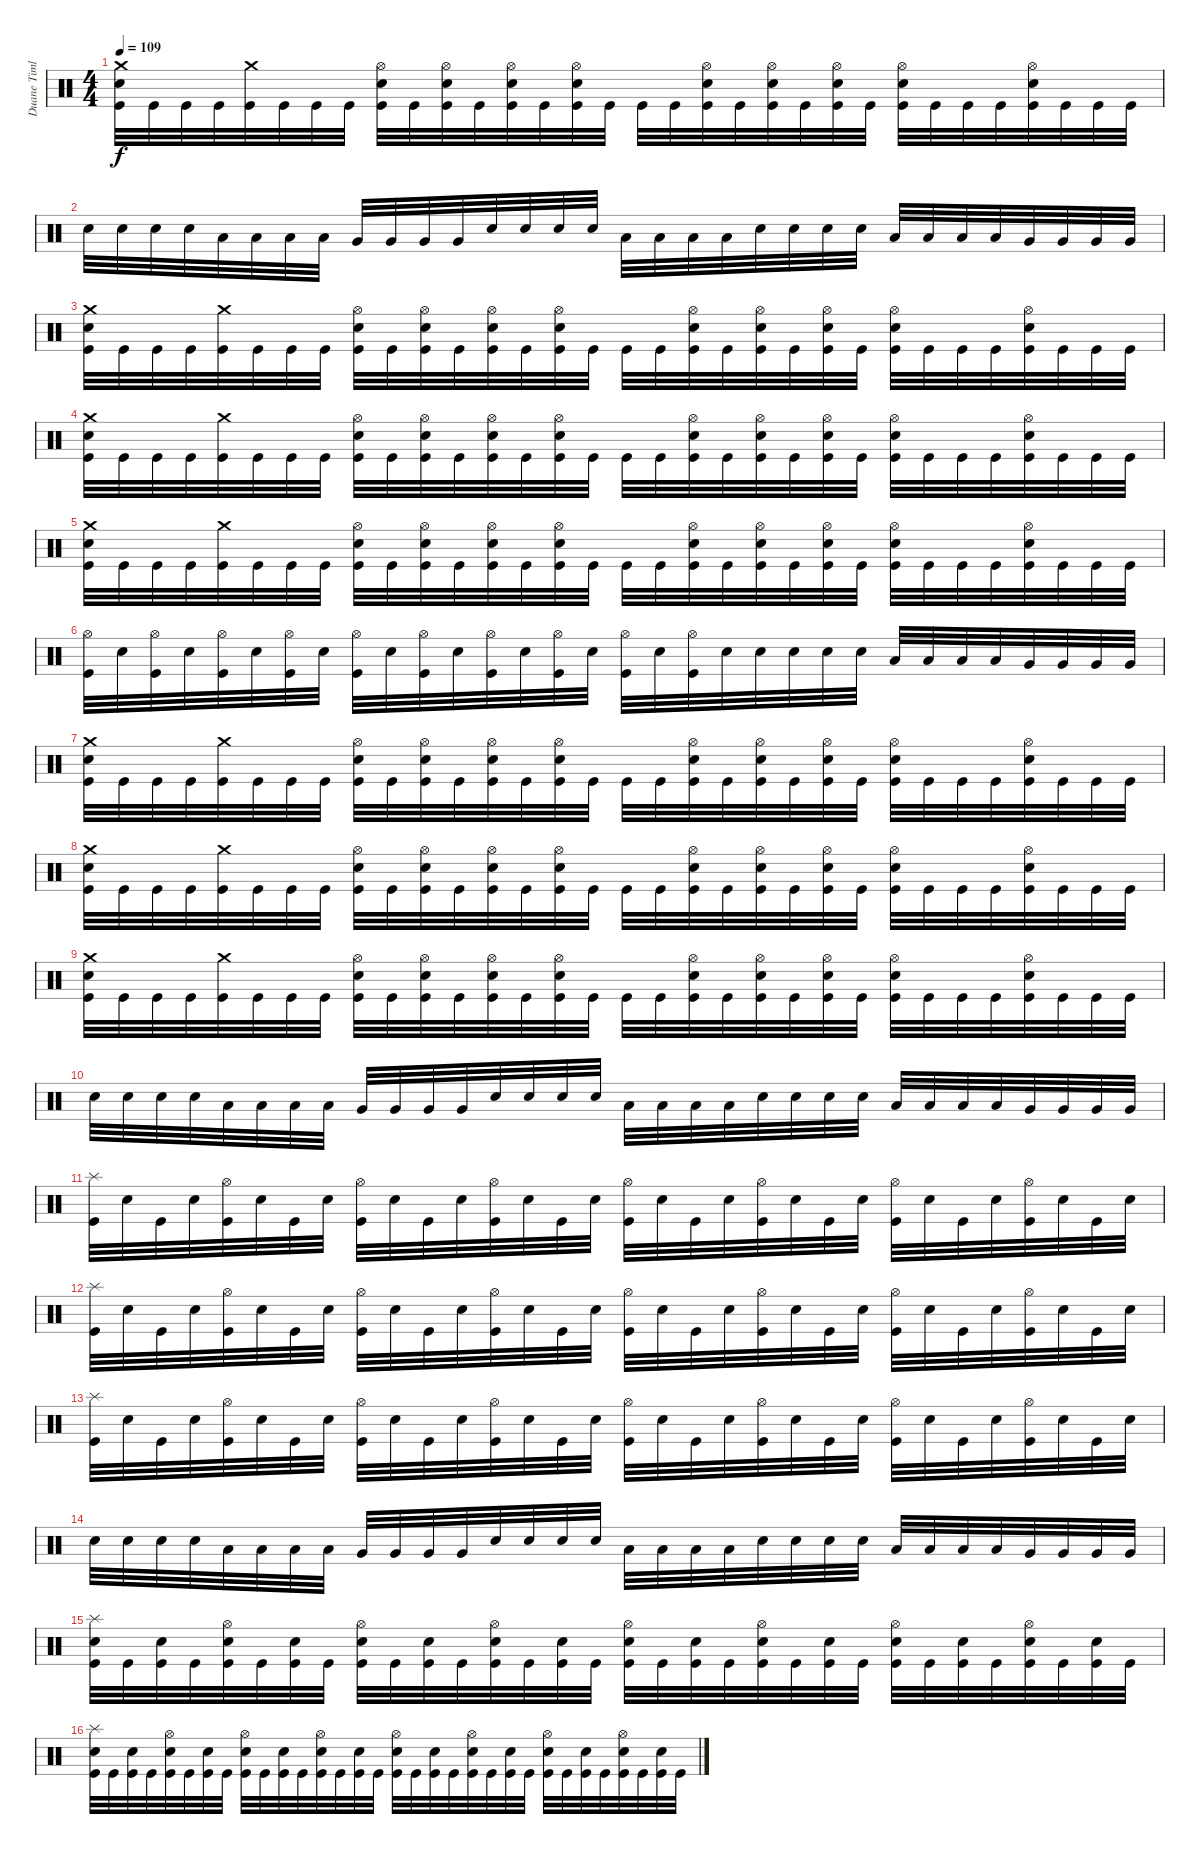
\track ("Duane Timlin" "Duane Timl") {instrument percussion}
\staff {score}
\articulation defaults
\ts (4 4)
\tempo 109
\clef neutral
\ks c
("Kick (hit)" "Crash medium (hit)" "Snare (hit) 2").32{dy f} "Kick (hit)".32 "Kick (hit)".32 "Kick (hit)".32 ("Kick (hit)" "Crash medium (hit)").32 "Kick (hit)".32 "Kick (hit)".32 "Kick (hit)".32 ("Kick (hit)" "Snare (hit) 2" "Hi-Hat (open)").32 "Kick (hit)".32 ("Kick (hit)" "Snare (hit) 2" "Hi-Hat (open)").32 "Kick (hit)".32 ("Kick (hit)" "Snare (hit) 2" "Hi-Hat (open)").32 "Kick (hit)".32 ("Kick (hit)" "Snare (hit) 2" "Hi-Hat (open)").32 "Kick (hit)".32 "Kick (hit)".32 "Kick (hit)".32 ("Kick (hit)" "Snare (hit) 2" "Hi-Hat (open)").32 "Kick (hit)".32 ("Kick (hit)" "Snare (hit) 2" "Hi-Hat (open)").32 "Kick (hit)".32 ("Kick (hit)" "Snare (hit) 2" "Hi-Hat (open)").32 "Kick (hit)".32 ("Kick (hit)" "Snare (hit) 2" "Hi-Hat (open)").32 "Kick (hit)".32 "Kick (hit)".32 "Kick (hit)".32 ("Kick (hit)" "Snare (hit) 2" "Hi-Hat (open)").32 "Kick (hit)".32 "Kick (hit)".32 "Kick (hit)".32 |
"Snare (hit) 2".32 "Snare (hit) 2".32 "Snare (hit) 2".32 "Snare (hit) 2".32 "Low Tom (hit)".32 "Low Tom (hit)".32 "Low Tom (hit)".32 "Low Tom (hit)".32 "Very Low Tom (hit)".32 "Very Low Tom (hit)".32 "Very Low Tom (hit)".32 "Very Low Tom (hit)".32 "Snare (hit) 2".32 "Snare (hit) 2".32 "Snare (hit) 2".32 "Snare (hit) 2".32 "Low Tom (hit)".32 "Low Tom (hit)".32 "Low Tom (hit)".32 "Low Tom (hit)".32 "Snare (hit) 2".32 "Snare (hit) 2".32 "Snare (hit) 2".32 "Snare (hit) 2".32 "Low Tom (hit)".32 "Low Tom (hit)".32 "Low Tom (hit)".32 "Low Tom (hit)".32 "Very Low Tom (hit)".32 "Very Low Tom (hit)".32 "Very Low Tom (hit)".32 "Very Low Tom (hit)".32 |
("Kick (hit)" "Crash medium (hit)" "Snare (hit) 2").32 "Kick (hit)".32 "Kick (hit)".32 "Kick (hit)".32 ("Kick (hit)" "Crash medium (hit)").32 "Kick (hit)".32 "Kick (hit)".32 "Kick (hit)".32 ("Kick (hit)" "Snare (hit) 2" "Hi-Hat (open)").32 "Kick (hit)".32 ("Kick (hit)" "Snare (hit) 2" "Hi-Hat (open)").32 "Kick (hit)".32 ("Kick (hit)" "Snare (hit) 2" "Hi-Hat (open)").32 "Kick (hit)".32 ("Kick (hit)" "Snare (hit) 2" "Hi-Hat (open)").32 "Kick (hit)".32 "Kick (hit)".32 "Kick (hit)".32 ("Kick (hit)" "Snare (hit) 2" "Hi-Hat (open)").32 "Kick (hit)".32 ("Kick (hit)" "Snare (hit) 2" "Hi-Hat (open)").32 "Kick (hit)".32 ("Kick (hit)" "Snare (hit) 2" "Hi-Hat (open)").32 "Kick (hit)".32 ("Kick (hit)" "Snare (hit) 2" "Hi-Hat (open)").32 "Kick (hit)".32 "Kick (hit)".32 "Kick (hit)".32 ("Kick (hit)" "Snare (hit) 2" "Hi-Hat (open)").32 "Kick (hit)".32 "Kick (hit)".32 "Kick (hit)".32 |
("Kick (hit)" "Crash medium (hit)" "Snare (hit) 2").32 "Kick (hit)".32 "Kick (hit)".32 "Kick (hit)".32 ("Kick (hit)" "Crash medium (hit)").32 "Kick (hit)".32 "Kick (hit)".32 "Kick (hit)".32 ("Kick (hit)" "Snare (hit) 2" "Hi-Hat (open)").32 "Kick (hit)".32 ("Kick (hit)" "Snare (hit) 2" "Hi-Hat (open)").32 "Kick (hit)".32 ("Kick (hit)" "Snare (hit) 2" "Hi-Hat (open)").32 "Kick (hit)".32 ("Kick (hit)" "Snare (hit) 2" "Hi-Hat (open)").32 "Kick (hit)".32 "Kick (hit)".32 "Kick (hit)".32 ("Kick (hit)" "Snare (hit) 2" "Hi-Hat (open)").32 "Kick (hit)".32 ("Kick (hit)" "Snare (hit) 2" "Hi-Hat (open)").32 "Kick (hit)".32 ("Kick (hit)" "Snare (hit) 2" "Hi-Hat (open)").32 "Kick (hit)".32 ("Kick (hit)" "Snare (hit) 2" "Hi-Hat (open)").32 "Kick (hit)".32 "Kick (hit)".32 "Kick (hit)".32 ("Kick (hit)" "Snare (hit) 2" "Hi-Hat (open)").32 "Kick (hit)".32 "Kick (hit)".32 "Kick (hit)".32 |
("Kick (hit)" "Crash medium (hit)" "Snare (hit) 2").32 "Kick (hit)".32 "Kick (hit)".32 "Kick (hit)".32 ("Kick (hit)" "Crash medium (hit)").32 "Kick (hit)".32 "Kick (hit)".32 "Kick (hit)".32 ("Kick (hit)" "Snare (hit) 2" "Hi-Hat (open)").32 "Kick (hit)".32 ("Kick (hit)" "Snare (hit) 2" "Hi-Hat (open)").32 "Kick (hit)".32 ("Kick (hit)" "Snare (hit) 2" "Hi-Hat (open)").32 "Kick (hit)".32 ("Kick (hit)" "Snare (hit) 2" "Hi-Hat (open)").32 "Kick (hit)".32 "Kick (hit)".32 "Kick (hit)".32 ("Kick (hit)" "Snare (hit) 2" "Hi-Hat (open)").32 "Kick (hit)".32 ("Kick (hit)" "Snare (hit) 2" "Hi-Hat (open)").32 "Kick (hit)".32 ("Kick (hit)" "Snare (hit) 2" "Hi-Hat (open)").32 "Kick (hit)".32 ("Kick (hit)" "Snare (hit) 2" "Hi-Hat (open)").32 "Kick (hit)".32 "Kick (hit)".32 "Kick (hit)".32 ("Kick (hit)" "Snare (hit) 2" "Hi-Hat (open)").32 "Kick (hit)".32 "Kick (hit)".32 "Kick (hit)".32 |
("Kick (hit)" "Hi-Hat (open)").32 "Snare (hit) 2".32 ("Kick (hit)" "Hi-Hat (open)").32 "Snare (hit) 2".32 ("Kick (hit)" "Hi-Hat (open)").32 "Snare (hit) 2".32 ("Kick (hit)" "Hi-Hat (open)").32 "Snare (hit) 2".32 ("Kick (hit)" "Hi-Hat (open)").32 "Snare (hit) 2".32 ("Kick (hit)" "Hi-Hat (open)").32 "Snare (hit) 2".32 ("Kick (hit)" "Hi-Hat (open)").32 "Snare (hit) 2".32 ("Kick (hit)" "Hi-Hat (open)").32 "Snare (hit) 2".32 ("Kick (hit)" "Hi-Hat (open)").32 "Snare (hit) 2".32 ("Kick (hit)" "Hi-Hat (open)").32 "Snare (hit) 2".32 "Snare (hit) 2".32 "Snare (hit) 2".32 "Snare (hit) 2".32 "Snare (hit) 2".32 "Low Tom (hit)".32 "Low Tom (hit)".32 "Low Tom (hit)".32 "Low Tom (hit)".32 "Very Low Tom (hit)".32 "Very Low Tom (hit)".32 "Very Low Tom (hit)".32 "Very Low Tom (hit)".32 |
("Kick (hit)" "Crash medium (hit)" "Snare (hit) 2").32 "Kick (hit)".32 "Kick (hit)".32 "Kick (hit)".32 ("Kick (hit)" "Crash medium (hit)").32 "Kick (hit)".32 "Kick (hit)".32 "Kick (hit)".32 ("Kick (hit)" "Snare (hit) 2" "Hi-Hat (open)").32 "Kick (hit)".32 ("Kick (hit)" "Snare (hit) 2" "Hi-Hat (open)").32 "Kick (hit)".32 ("Kick (hit)" "Snare (hit) 2" "Hi-Hat (open)").32 "Kick (hit)".32 ("Kick (hit)" "Snare (hit) 2" "Hi-Hat (open)").32 "Kick (hit)".32 "Kick (hit)".32 "Kick (hit)".32 ("Kick (hit)" "Snare (hit) 2" "Hi-Hat (open)").32 "Kick (hit)".32 ("Kick (hit)" "Snare (hit) 2" "Hi-Hat (open)").32 "Kick (hit)".32 ("Kick (hit)" "Snare (hit) 2" "Hi-Hat (open)").32 "Kick (hit)".32 ("Kick (hit)" "Snare (hit) 2" "Hi-Hat (open)").32 "Kick (hit)".32 "Kick (hit)".32 "Kick (hit)".32 ("Kick (hit)" "Snare (hit) 2" "Hi-Hat (open)").32 "Kick (hit)".32 "Kick (hit)".32 "Kick (hit)".32 |
("Kick (hit)" "Crash medium (hit)" "Snare (hit) 2").32 "Kick (hit)".32 "Kick (hit)".32 "Kick (hit)".32 ("Kick (hit)" "Crash medium (hit)").32 "Kick (hit)".32 "Kick (hit)".32 "Kick (hit)".32 ("Kick (hit)" "Snare (hit) 2" "Hi-Hat (open)").32 "Kick (hit)".32 ("Kick (hit)" "Snare (hit) 2" "Hi-Hat (open)").32 "Kick (hit)".32 ("Kick (hit)" "Snare (hit) 2" "Hi-Hat (open)").32 "Kick (hit)".32 ("Kick (hit)" "Snare (hit) 2" "Hi-Hat (open)").32 "Kick (hit)".32 "Kick (hit)".32 "Kick (hit)".32 ("Kick (hit)" "Snare (hit) 2" "Hi-Hat (open)").32 "Kick (hit)".32 ("Kick (hit)" "Snare (hit) 2" "Hi-Hat (open)").32 "Kick (hit)".32 ("Kick (hit)" "Snare (hit) 2" "Hi-Hat (open)").32 "Kick (hit)".32 ("Kick (hit)" "Snare (hit) 2" "Hi-Hat (open)").32 "Kick (hit)".32 "Kick (hit)".32 "Kick (hit)".32 ("Kick (hit)" "Snare (hit) 2" "Hi-Hat (open)").32 "Kick (hit)".32 "Kick (hit)".32 "Kick (hit)".32 |
("Kick (hit)" "Crash medium (hit)" "Snare (hit) 2").32 "Kick (hit)".32 "Kick (hit)".32 "Kick (hit)".32 ("Kick (hit)" "Crash medium (hit)").32 "Kick (hit)".32 "Kick (hit)".32 "Kick (hit)".32 ("Kick (hit)" "Snare (hit) 2" "Hi-Hat (open)").32 "Kick (hit)".32 ("Kick (hit)" "Snare (hit) 2" "Hi-Hat (open)").32 "Kick (hit)".32 ("Kick (hit)" "Snare (hit) 2" "Hi-Hat (open)").32 "Kick (hit)".32 ("Kick (hit)" "Snare (hit) 2" "Hi-Hat (open)").32 "Kick (hit)".32 "Kick (hit)".32 "Kick (hit)".32 ("Kick (hit)" "Snare (hit) 2" "Hi-Hat (open)").32 "Kick (hit)".32 ("Kick (hit)" "Snare (hit) 2" "Hi-Hat (open)").32 "Kick (hit)".32 ("Kick (hit)" "Snare (hit) 2" "Hi-Hat (open)").32 "Kick (hit)".32 ("Kick (hit)" "Snare (hit) 2" "Hi-Hat (open)").32 "Kick (hit)".32 "Kick (hit)".32 "Kick (hit)".32 ("Kick (hit)" "Snare (hit) 2" "Hi-Hat (open)").32 "Kick (hit)".32 "Kick (hit)".32 "Kick (hit)".32 |
"Snare (hit) 2".32 "Snare (hit) 2".32 "Snare (hit) 2".32 "Snare (hit) 2".32 "Low Tom (hit)".32 "Low Tom (hit)".32 "Low Tom (hit)".32 "Low Tom (hit)".32 "Very Low Tom (hit)".32 "Very Low Tom (hit)".32 "Very Low Tom (hit)".32 "Very Low Tom (hit)".32 "Snare (hit) 2".32 "Snare (hit) 2".32 "Snare (hit) 2".32 "Snare (hit) 2".32 "Low Tom (hit)".32 "Low Tom (hit)".32 "Low Tom (hit)".32 "Low Tom (hit)".32 "Snare (hit) 2".32 "Snare (hit) 2".32 "Snare (hit) 2".32 "Snare (hit) 2".32 "Low Tom (hit)".32 "Low Tom (hit)".32 "Low Tom (hit)".32 "Low Tom (hit)".32 "Very Low Tom (hit)".32 "Very Low Tom (hit)".32 "Very Low Tom (hit)".32 "Very Low Tom (hit)".32 |
\section ("" "")
("Kick (hit)" "Splash (hit)").32 "Snare (hit) 2".32 "Kick (hit)".32 "Snare (hit) 2".32 ("Kick (hit)" "Hi-Hat (open)").32 "Snare (hit) 2".32 "Kick (hit)".32 "Snare (hit) 2".32 ("Kick (hit)" "Hi-Hat (open)").32 "Snare (hit) 2".32 "Kick (hit)".32 "Snare (hit) 2".32 ("Kick (hit)" "Hi-Hat (open)").32 "Snare (hit) 2".32 "Kick (hit)".32 "Snare (hit) 2".32 ("Kick (hit)" "Hi-Hat (open)").32 "Snare (hit) 2".32 "Kick (hit)".32 "Snare (hit) 2".32 ("Kick (hit)" "Hi-Hat (open)").32 "Snare (hit) 2".32 "Kick (hit)".32 "Snare (hit) 2".32 ("Kick (hit)" "Hi-Hat (open)").32 "Snare (hit) 2".32 "Kick (hit)".32 "Snare (hit) 2".32 ("Kick (hit)" "Hi-Hat (open)").32 "Snare (hit) 2".32 "Kick (hit)".32 "Snare (hit) 2".32 |
("Kick (hit)" "Splash (hit)").32 "Snare (hit) 2".32 "Kick (hit)".32 "Snare (hit) 2".32 ("Kick (hit)" "Hi-Hat (open)").32 "Snare (hit) 2".32 "Kick (hit)".32 "Snare (hit) 2".32 ("Kick (hit)" "Hi-Hat (open)").32 "Snare (hit) 2".32 "Kick (hit)".32 "Snare (hit) 2".32 ("Kick (hit)" "Hi-Hat (open)").32 "Snare (hit) 2".32 "Kick (hit)".32 "Snare (hit) 2".32 ("Kick (hit)" "Hi-Hat (open)").32 "Snare (hit) 2".32 "Kick (hit)".32 "Snare (hit) 2".32 ("Kick (hit)" "Hi-Hat (open)").32 "Snare (hit) 2".32 "Kick (hit)".32 "Snare (hit) 2".32 ("Kick (hit)" "Hi-Hat (open)").32 "Snare (hit) 2".32 "Kick (hit)".32 "Snare (hit) 2".32 ("Kick (hit)" "Hi-Hat (open)").32 "Snare (hit) 2".32 "Kick (hit)".32 "Snare (hit) 2".32 |
("Kick (hit)" "Splash (hit)").32 "Snare (hit) 2".32 "Kick (hit)".32 "Snare (hit) 2".32 ("Kick (hit)" "Hi-Hat (open)").32 "Snare (hit) 2".32 "Kick (hit)".32 "Snare (hit) 2".32 ("Kick (hit)" "Hi-Hat (open)").32 "Snare (hit) 2".32 "Kick (hit)".32 "Snare (hit) 2".32 ("Kick (hit)" "Hi-Hat (open)").32 "Snare (hit) 2".32 "Kick (hit)".32 "Snare (hit) 2".32 ("Kick (hit)" "Hi-Hat (open)").32 "Snare (hit) 2".32 "Kick (hit)".32 "Snare (hit) 2".32 ("Kick (hit)" "Hi-Hat (open)").32 "Snare (hit) 2".32 "Kick (hit)".32 "Snare (hit) 2".32 ("Kick (hit)" "Hi-Hat (open)").32 "Snare (hit) 2".32 "Kick (hit)".32 "Snare (hit) 2".32 ("Kick (hit)" "Hi-Hat (open)").32 "Snare (hit) 2".32 "Kick (hit)".32 "Snare (hit) 2".32 |
"Snare (hit) 2".32 "Snare (hit) 2".32 "Snare (hit) 2".32 "Snare (hit) 2".32 "Low Tom (hit)".32 "Low Tom (hit)".32 "Low Tom (hit)".32 "Low Tom (hit)".32 "Very Low Tom (hit)".32 "Very Low Tom (hit)".32 "Very Low Tom (hit)".32 "Very Low Tom (hit)".32 "Snare (hit) 2".32 "Snare (hit) 2".32 "Snare (hit) 2".32 "Snare (hit) 2".32 "Low Tom (hit)".32 "Low Tom (hit)".32 "Low Tom (hit)".32 "Low Tom (hit)".32 "Snare (hit) 2".32 "Snare (hit) 2".32 "Snare (hit) 2".32 "Snare (hit) 2".32 "Low Tom (hit)".32 "Low Tom (hit)".32 "Low Tom (hit)".32 "Low Tom (hit)".32 "Very Low Tom (hit)".32 "Very Low Tom (hit)".32 "Very Low Tom (hit)".32 "Very Low Tom (hit)".32 |
("Kick (hit)" "Snare (hit) 2" "Splash (hit)").32 "Kick (hit)".32 ("Kick (hit)" "Snare (hit) 2").32 "Kick (hit)".32 ("Kick (hit)" "Snare (hit) 2" "Hi-Hat (open)").32 "Kick (hit)".32 ("Kick (hit)" "Snare (hit) 2").32 "Kick (hit)".32 ("Kick (hit)" "Snare (hit) 2" "Hi-Hat (open)").32 "Kick (hit)".32 ("Kick (hit)" "Snare (hit) 2").32 "Kick (hit)".32 ("Kick (hit)" "Snare (hit) 2" "Hi-Hat (open)").32 "Kick (hit)".32 ("Kick (hit)" "Snare (hit) 2").32 "Kick (hit)".32 ("Kick (hit)" "Snare (hit) 2" "Hi-Hat (open)").32 "Kick (hit)".32 ("Kick (hit)" "Snare (hit) 2").32 "Kick (hit)".32 ("Kick (hit)" "Snare (hit) 2" "Hi-Hat (open)").32 "Kick (hit)".32 ("Kick (hit)" "Snare (hit) 2").32 "Kick (hit)".32 ("Kick (hit)" "Snare (hit) 2" "Hi-Hat (open)").32 "Kick (hit)".32 ("Kick (hit)" "Snare (hit) 2").32 "Kick (hit)".32 ("Kick (hit)" "Snare (hit) 2" "Hi-Hat (open)").32 "Kick (hit)".32 ("Kick (hit)" "Snare (hit) 2").32 "Kick (hit)".32 |
("Kick (hit)" "Snare (hit) 2" "Splash (hit)").32 "Kick (hit)".32 ("Kick (hit)" "Snare (hit) 2").32 "Kick (hit)".32 ("Kick (hit)" "Snare (hit) 2" "Hi-Hat (open)").32 "Kick (hit)".32 ("Kick (hit)" "Snare (hit) 2").32 "Kick (hit)".32 ("Kick (hit)" "Snare (hit) 2" "Hi-Hat (open)").32 "Kick (hit)".32 ("Kick (hit)" "Snare (hit) 2").32 "Kick (hit)".32 ("Kick (hit)" "Snare (hit) 2" "Hi-Hat (open)").32 "Kick (hit)".32 ("Kick (hit)" "Snare (hit) 2").32 "Kick (hit)".32 ("Kick (hit)" "Snare (hit) 2" "Hi-Hat (open)").32 "Kick (hit)".32 ("Kick (hit)" "Snare (hit) 2").32 "Kick (hit)".32 ("Kick (hit)" "Snare (hit) 2" "Hi-Hat (open)").32 "Kick (hit)".32 ("Kick (hit)" "Snare (hit) 2").32 "Kick (hit)".32 ("Kick (hit)" "Snare (hit) 2" "Hi-Hat (open)").32 "Kick (hit)".32 ("Kick (hit)" "Snare (hit) 2").32 "Kick (hit)".32 ("Kick (hit)" "Snare (hit) 2" "Hi-Hat (open)").32 "Kick (hit)".32 ("Kick (hit)" "Snare (hit) 2").32 "Kick (hit)".32
